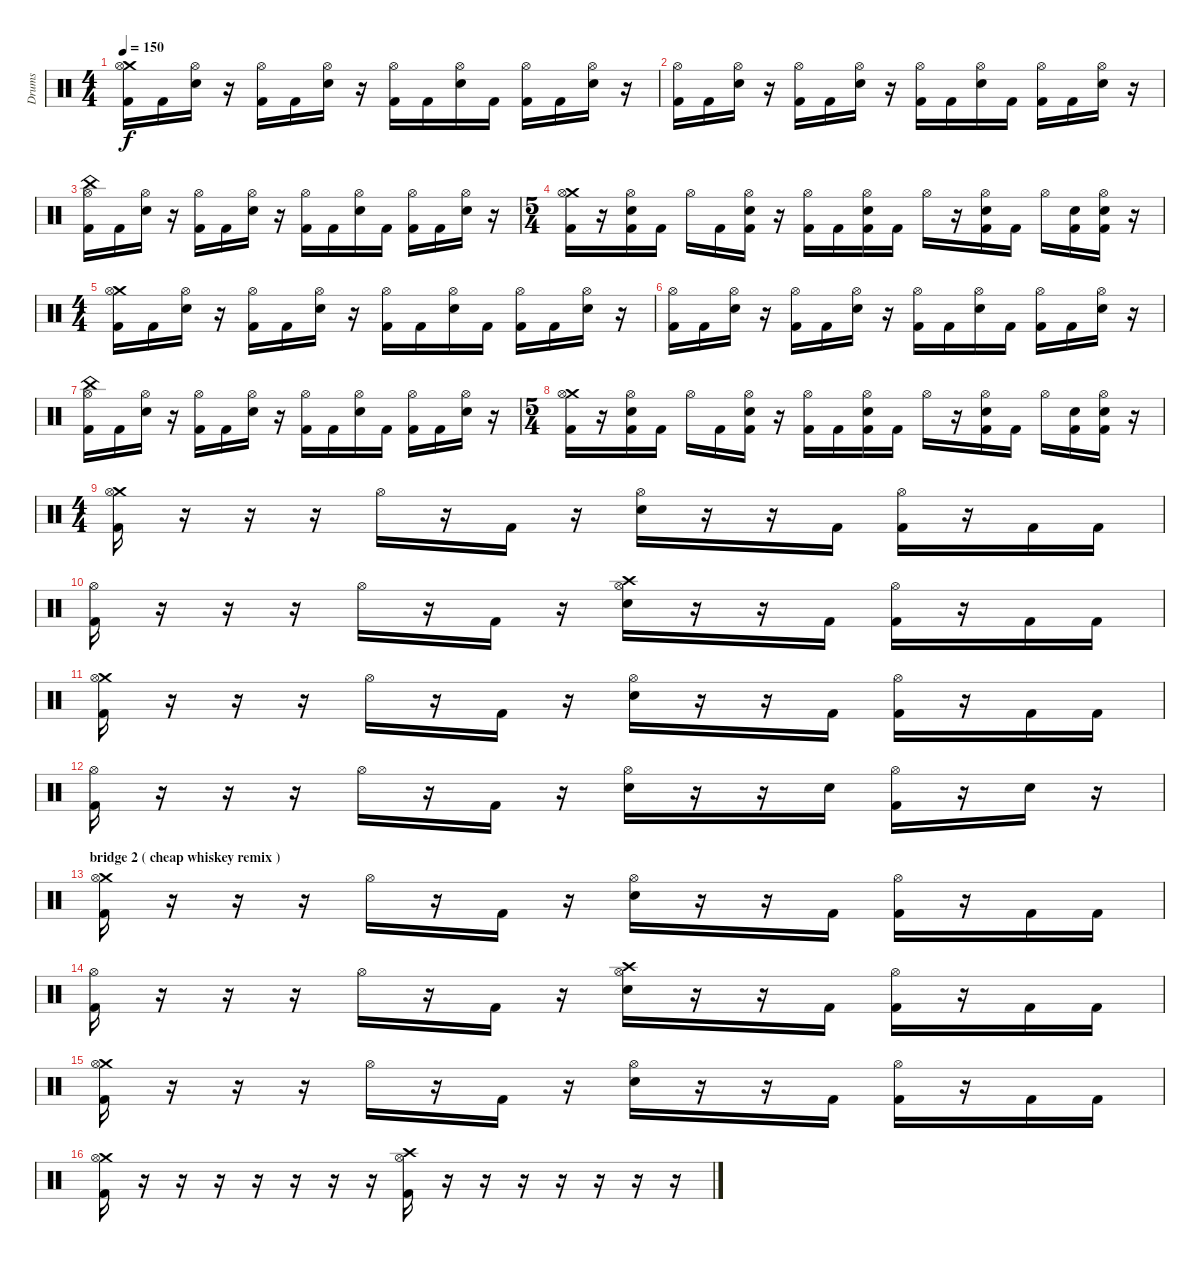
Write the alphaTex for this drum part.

\track ("Drums" "Drums") {instrument percussion}
\staff {score}
\articulation defaults
\ts (4 4)
\tempo 150
\clef neutral
\ks c
("Crash medium (hit)" "Hi-Hat (open)" "Kick (hit) 2").16{dy f} "Kick (hit) 2".16 ("Hi-Hat (open)" "Electric Snare (hit)").16 r.16 ("Hi-Hat (open)" "Kick (hit) 2").16 "Kick (hit) 2".16 ("Hi-Hat (open)" "Electric Snare (hit)").16 r.16 ("Hi-Hat (open)" "Kick (hit) 2").16 "Kick (hit) 2".16 ("Hi-Hat (open)" "Electric Snare (hit)").16 "Kick (hit) 2".16 ("Hi-Hat (open)" "Kick (hit) 2").16 "Kick (hit) 2".16 ("Hi-Hat (open)" "Electric Snare (hit)").16 r.16 |
("Hi-Hat (open)" "Kick (hit) 2").16 "Kick (hit) 2".16 ("Hi-Hat (open)" "Electric Snare (hit)").16 r.16 ("Hi-Hat (open)" "Kick (hit) 2").16 "Kick (hit) 2".16 ("Hi-Hat (open)" "Electric Snare (hit)").16 r.16 ("Hi-Hat (open)" "Kick (hit) 2").16 "Kick (hit) 2".16 ("Hi-Hat (open)" "Electric Snare (hit)").16 "Kick (hit) 2".16 ("Hi-Hat (open)" "Kick (hit) 2").16 "Kick (hit) 2".16 ("Hi-Hat (open)" "Electric Snare (hit)").16 r.16 |
("China (hit)" "Hi-Hat (open)" "Kick (hit) 2").16 "Kick (hit) 2".16 ("Hi-Hat (open)" "Electric Snare (hit)").16 r.16 ("Hi-Hat (open)" "Kick (hit) 2").16 "Kick (hit) 2".16 ("Hi-Hat (open)" "Electric Snare (hit)").16 r.16 ("Hi-Hat (open)" "Kick (hit) 2").16 "Kick (hit) 2".16 ("Hi-Hat (open)" "Electric Snare (hit)").16 "Kick (hit) 2".16 ("Hi-Hat (open)" "Kick (hit) 2").16 "Kick (hit) 2".16 ("Hi-Hat (open)" "Electric Snare (hit)").16 r.16 |
\ts (5 4)
("Crash medium (hit)" "Hi-Hat (open)" "Kick (hit) 2").16 r.16 ("Hi-Hat (open)" "Electric Snare (hit)" "Kick (hit) 2").16 "Kick (hit) 2".16 "Hi-Hat (open)".16 "Kick (hit) 2".16 ("Hi-Hat (open)" "Electric Snare (hit)" "Kick (hit) 2").16 r.16 ("Hi-Hat (open)" "Kick (hit) 2").16 "Kick (hit) 2".16 ("Hi-Hat (open)" "Electric Snare (hit)" "Kick (hit) 2").16 "Kick (hit) 2".16 "Hi-Hat (open)".16 r.16 ("Hi-Hat (open)" "Electric Snare (hit)" "Kick (hit) 2").16 "Kick (hit) 2".16 "Hi-Hat (open)".16 ("Electric Snare (hit)" "Kick (hit) 2").16 ("Hi-Hat (open)" "Electric Snare (hit)" "Kick (hit) 2").16 r.16 |
\ts (4 4)
("Crash medium (hit)" "Hi-Hat (open)" "Kick (hit) 2").16 "Kick (hit) 2".16 ("Hi-Hat (open)" "Electric Snare (hit)").16 r.16 ("Hi-Hat (open)" "Kick (hit) 2").16 "Kick (hit) 2".16 ("Hi-Hat (open)" "Electric Snare (hit)").16 r.16 ("Hi-Hat (open)" "Kick (hit) 2").16 "Kick (hit) 2".16 ("Hi-Hat (open)" "Electric Snare (hit)").16 "Kick (hit) 2".16 ("Hi-Hat (open)" "Kick (hit) 2").16 "Kick (hit) 2".16 ("Hi-Hat (open)" "Electric Snare (hit)").16 r.16 |
("Hi-Hat (open)" "Kick (hit) 2").16 "Kick (hit) 2".16 ("Hi-Hat (open)" "Electric Snare (hit)").16 r.16 ("Hi-Hat (open)" "Kick (hit) 2").16 "Kick (hit) 2".16 ("Hi-Hat (open)" "Electric Snare (hit)").16 r.16 ("Hi-Hat (open)" "Kick (hit) 2").16 "Kick (hit) 2".16 ("Hi-Hat (open)" "Electric Snare (hit)").16 "Kick (hit) 2".16 ("Hi-Hat (open)" "Kick (hit) 2").16 "Kick (hit) 2".16 ("Hi-Hat (open)" "Electric Snare (hit)").16 r.16 |
("China (hit)" "Hi-Hat (open)" "Kick (hit) 2").16 "Kick (hit) 2".16 ("Hi-Hat (open)" "Electric Snare (hit)").16 r.16 ("Hi-Hat (open)" "Kick (hit) 2").16 "Kick (hit) 2".16 ("Hi-Hat (open)" "Electric Snare (hit)").16 r.16 ("Hi-Hat (open)" "Kick (hit) 2").16 "Kick (hit) 2".16 ("Hi-Hat (open)" "Electric Snare (hit)").16 "Kick (hit) 2".16 ("Hi-Hat (open)" "Kick (hit) 2").16 "Kick (hit) 2".16 ("Hi-Hat (open)" "Electric Snare (hit)").16 r.16 |
\ts (5 4)
("Crash medium (hit)" "Hi-Hat (open)" "Kick (hit) 2").16 r.16 ("Hi-Hat (open)" "Electric Snare (hit)" "Kick (hit) 2").16 "Kick (hit) 2".16 "Hi-Hat (open)".16 "Kick (hit) 2".16 ("Hi-Hat (open)" "Electric Snare (hit)" "Kick (hit) 2").16 r.16 ("Hi-Hat (open)" "Kick (hit) 2").16 "Kick (hit) 2".16 ("Hi-Hat (open)" "Electric Snare (hit)" "Kick (hit) 2").16 "Kick (hit) 2".16 "Hi-Hat (open)".16 r.16 ("Hi-Hat (open)" "Electric Snare (hit)" "Kick (hit) 2").16 "Kick (hit) 2".16 "Hi-Hat (open)".16 ("Electric Snare (hit)" "Kick (hit) 2").16 ("Hi-Hat (open)" "Electric Snare (hit)" "Kick (hit) 2").16 r.16 |
\ts (4 4)
("Crash medium (hit)" "Hi-Hat (open)" "Kick (hit) 2").16 r.16 r.16 r.16 "Hi-Hat (open)".16 r.16 "Kick (hit) 2".16 r.16 ("Hi-Hat (open)" "Electric Snare (hit)").16 r.16 r.16 "Kick (hit) 2".16 ("Hi-Hat (open)" "Kick (hit) 2").16 r.16 "Kick (hit) 2".16 "Kick (hit) 2".16 |
("Hi-Hat (open)" "Kick (hit) 2").16 r.16 r.16 r.16 "Hi-Hat (open)".16 r.16 "Kick (hit) 2".16 r.16 ("Crash high (hit)" "Hi-Hat (open)" "Electric Snare (hit)").16 r.16 r.16 "Kick (hit) 2".16 ("Hi-Hat (open)" "Kick (hit) 2").16 r.16 "Kick (hit) 2".16 "Kick (hit) 2".16 |
("Crash medium (hit)" "Hi-Hat (open)" "Kick (hit) 2").16 r.16 r.16 r.16 "Hi-Hat (open)".16 r.16 "Kick (hit) 2".16 r.16 ("Hi-Hat (open)" "Electric Snare (hit)").16 r.16 r.16 "Kick (hit) 2".16 ("Hi-Hat (open)" "Kick (hit) 2").16 r.16 "Kick (hit) 2".16 "Kick (hit) 2".16 |
("Hi-Hat (open)" "Kick (hit) 2").16 r.16 r.16 r.16 "Hi-Hat (open)".16 r.16 "Kick (hit) 2".16 r.16 ("Hi-Hat (open)" "Electric Snare (hit)").16 r.16 r.16 "Electric Snare (hit)".16 ("Hi-Hat (open)" "Kick (hit) 2").16 r.16 "Electric Snare (hit)".16 r.16 |
\section ("" "bridge 2 ( cheap whiskey remix )")
("Crash medium (hit)" "Hi-Hat (open)" "Kick (hit) 2").16 r.16 r.16 r.16 "Hi-Hat (open)".16 r.16 "Kick (hit) 2".16 r.16 ("Hi-Hat (open)" "Electric Snare (hit)").16 r.16 r.16 "Kick (hit) 2".16 ("Hi-Hat (open)" "Kick (hit) 2").16 r.16 "Kick (hit) 2".16 "Kick (hit) 2".16 |
("Hi-Hat (open)" "Kick (hit) 2").16 r.16 r.16 r.16 "Hi-Hat (open)".16 r.16 "Kick (hit) 2".16 r.16 ("Crash high (hit)" "Hi-Hat (open)" "Electric Snare (hit)").16 r.16 r.16 "Kick (hit) 2".16 ("Hi-Hat (open)" "Kick (hit) 2").16 r.16 "Kick (hit) 2".16 "Kick (hit) 2".16 |
("Crash medium (hit)" "Hi-Hat (open)" "Kick (hit) 2").16 r.16 r.16 r.16 "Hi-Hat (open)".16 r.16 "Kick (hit) 2".16 r.16 ("Hi-Hat (open)" "Electric Snare (hit)").16 r.16 r.16 "Kick (hit) 2".16 ("Hi-Hat (open)" "Kick (hit) 2").16 r.16 "Kick (hit) 2".16 "Kick (hit) 2".16 |
("Crash medium (hit)" "Hi-Hat (open)" "Kick (hit) 2").16 r.16 r.16 r.16 r.16 r.16 r.16 r.16 ("Crash high (hit)" "Hi-Hat (open)" "Kick (hit) 2").16 r.16 r.16 r.16 r.16 r.16 r.16 r.16
